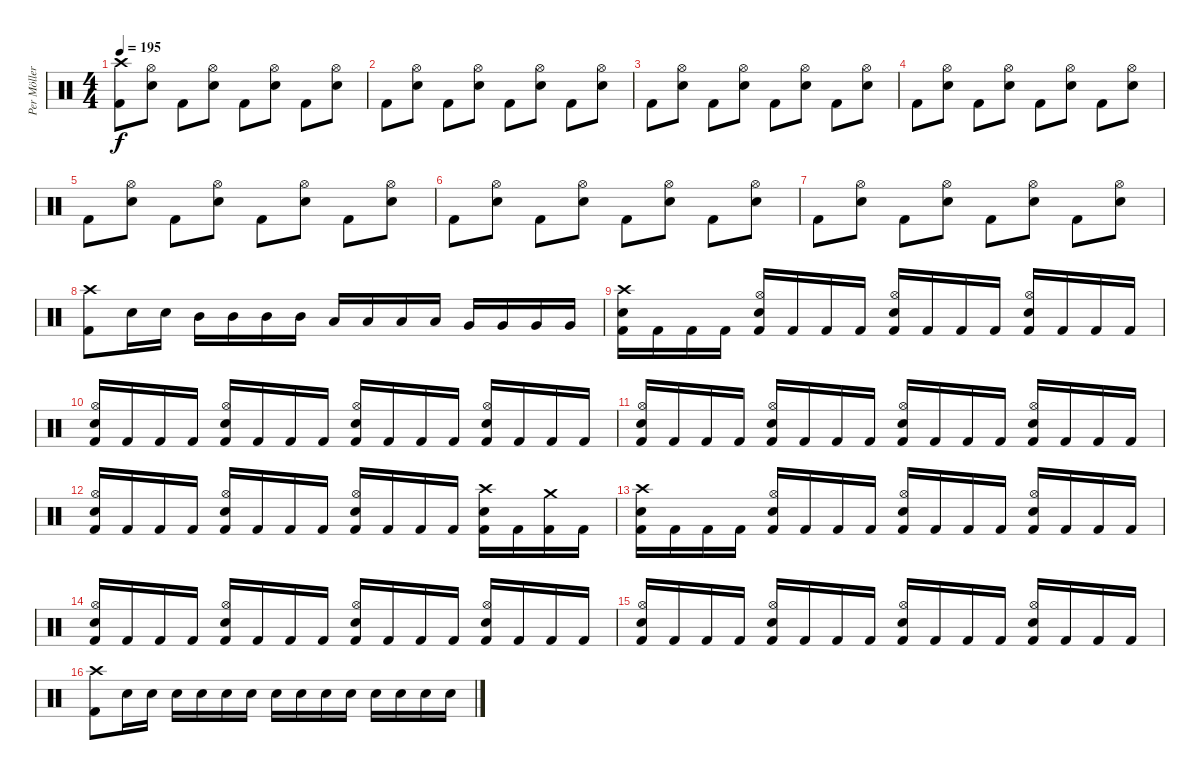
\track ("Per Möller Jensen" "Per Möller") {instrument percussion}
\staff {score}
\articulation defaults
\ts (4 4)
\tempo 195
\clef neutral
\ks c
("Crash high (hit)" "Kick (hit) 2").8{dy f} ("Hi-Hat (open)" "Snare (hit) 2").8 "Kick (hit) 2".8 ("Hi-Hat (open)" "Snare (hit) 2").8 "Kick (hit) 2".8 ("Hi-Hat (open)" "Snare (hit) 2").8 "Kick (hit) 2".8 ("Hi-Hat (open)" "Snare (hit) 2").8 |
"Kick (hit) 2".8 ("Hi-Hat (open)" "Snare (hit) 2").8 "Kick (hit) 2".8 ("Hi-Hat (open)" "Snare (hit) 2").8 "Kick (hit) 2".8 ("Hi-Hat (open)" "Snare (hit) 2").8 "Kick (hit) 2".8 ("Hi-Hat (open)" "Snare (hit) 2").8 |
"Kick (hit) 2".8 ("Hi-Hat (open)" "Snare (hit) 2").8 "Kick (hit) 2".8 ("Hi-Hat (open)" "Snare (hit) 2").8 "Kick (hit) 2".8 ("Hi-Hat (open)" "Snare (hit) 2").8 "Kick (hit) 2".8 ("Hi-Hat (open)" "Snare (hit) 2").8 |
"Kick (hit) 2".8 ("Hi-Hat (open)" "Snare (hit) 2").8 "Kick (hit) 2".8 ("Hi-Hat (open)" "Snare (hit) 2").8 "Kick (hit) 2".8 ("Hi-Hat (open)" "Snare (hit) 2").8 "Kick (hit) 2".8 ("Hi-Hat (open)" "Snare (hit) 2").8 |
"Kick (hit) 2".8 ("Hi-Hat (open)" "Snare (hit) 2").8 "Kick (hit) 2".8 ("Hi-Hat (open)" "Snare (hit) 2").8 "Kick (hit) 2".8 ("Hi-Hat (open)" "Snare (hit) 2").8 "Kick (hit) 2".8 ("Hi-Hat (open)" "Snare (hit) 2").8 |
"Kick (hit) 2".8 ("Hi-Hat (open)" "Snare (hit) 2").8 "Kick (hit) 2".8 ("Hi-Hat (open)" "Snare (hit) 2").8 "Kick (hit) 2".8 ("Hi-Hat (open)" "Snare (hit) 2").8 "Kick (hit) 2".8 ("Hi-Hat (open)" "Snare (hit) 2").8 |
"Kick (hit) 2".8 ("Hi-Hat (open)" "Snare (hit) 2").8 "Kick (hit) 2".8 ("Hi-Hat (open)" "Snare (hit) 2").8 "Kick (hit) 2".8 ("Hi-Hat (open)" "Snare (hit) 2").8 "Kick (hit) 2".8 ("Hi-Hat (open)" "Snare (hit) 2").8 |
("Crash high (hit)" "Kick (hit) 2").8 "Snare (hit) 2".16 "Snare (hit) 2".16 "Mid Tom (hit)".16 "Mid Tom (hit)".16 "Mid Tom (hit)".16 "Mid Tom (hit)".16 "Low Tom (hit)".16 "Low Tom (hit)".16 "Low Tom (hit)".16 "Low Tom (hit)".16 "Very Low Tom (hit)".16 "Very Low Tom (hit)".16 "Very Low Tom (hit)".16 "Very Low Tom (hit)".16 |
("Crash high (hit)" "Snare (hit) 2" "Kick (hit) 2").16 "Kick (hit) 2".16 "Kick (hit) 2".16 "Kick (hit) 2".16 ("Hi-Hat (open)" "Snare (hit) 2" "Kick (hit) 2").16 "Kick (hit) 2".16 "Kick (hit) 2".16 "Kick (hit) 2".16 ("Hi-Hat (open)" "Snare (hit) 2" "Kick (hit) 2").16 "Kick (hit) 2".16 "Kick (hit) 2".16 "Kick (hit) 2".16 ("Hi-Hat (open)" "Snare (hit) 2" "Kick (hit) 2").16 "Kick (hit) 2".16 "Kick (hit) 2".16 "Kick (hit) 2".16 |
("Hi-Hat (open)" "Snare (hit) 2" "Kick (hit) 2").16 "Kick (hit) 2".16 "Kick (hit) 2".16 "Kick (hit) 2".16 ("Hi-Hat (open)" "Snare (hit) 2" "Kick (hit) 2").16 "Kick (hit) 2".16 "Kick (hit) 2".16 "Kick (hit) 2".16 ("Hi-Hat (open)" "Snare (hit) 2" "Kick (hit) 2").16 "Kick (hit) 2".16 "Kick (hit) 2".16 "Kick (hit) 2".16 ("Hi-Hat (open)" "Snare (hit) 2" "Kick (hit) 2").16 "Kick (hit) 2".16 "Kick (hit) 2".16 "Kick (hit) 2".16 |
("Hi-Hat (open)" "Snare (hit) 2" "Kick (hit) 2").16 "Kick (hit) 2".16 "Kick (hit) 2".16 "Kick (hit) 2".16 ("Hi-Hat (open)" "Snare (hit) 2" "Kick (hit) 2").16 "Kick (hit) 2".16 "Kick (hit) 2".16 "Kick (hit) 2".16 ("Hi-Hat (open)" "Snare (hit) 2" "Kick (hit) 2").16 "Kick (hit) 2".16 "Kick (hit) 2".16 "Kick (hit) 2".16 ("Hi-Hat (open)" "Snare (hit) 2" "Kick (hit) 2").16 "Kick (hit) 2".16 "Kick (hit) 2".16 "Kick (hit) 2".16 |
("Hi-Hat (open)" "Snare (hit) 2" "Kick (hit) 2").16 "Kick (hit) 2".16 "Kick (hit) 2".16 "Kick (hit) 2".16 ("Hi-Hat (open)" "Snare (hit) 2" "Kick (hit) 2").16 "Kick (hit) 2".16 "Kick (hit) 2".16 "Kick (hit) 2".16 ("Hi-Hat (open)" "Snare (hit) 2" "Kick (hit) 2").16 "Kick (hit) 2".16 "Kick (hit) 2".16 "Kick (hit) 2".16 ("Crash high (hit)" "Snare (hit) 2" "Kick (hit) 2").16 "Kick (hit) 2".16 ("Crash medium (hit)" "Kick (hit) 2").16 "Kick (hit) 2".16 |
("Crash high (hit)" "Snare (hit) 2" "Kick (hit) 2").16 "Kick (hit) 2".16 "Kick (hit) 2".16 "Kick (hit) 2".16 ("Hi-Hat (open)" "Snare (hit) 2" "Kick (hit) 2").16 "Kick (hit) 2".16 "Kick (hit) 2".16 "Kick (hit) 2".16 ("Hi-Hat (open)" "Snare (hit) 2" "Kick (hit) 2").16 "Kick (hit) 2".16 "Kick (hit) 2".16 "Kick (hit) 2".16 ("Hi-Hat (open)" "Snare (hit) 2" "Kick (hit) 2").16 "Kick (hit) 2".16 "Kick (hit) 2".16 "Kick (hit) 2".16 |
("Hi-Hat (open)" "Snare (hit) 2" "Kick (hit) 2").16 "Kick (hit) 2".16 "Kick (hit) 2".16 "Kick (hit) 2".16 ("Hi-Hat (open)" "Snare (hit) 2" "Kick (hit) 2").16 "Kick (hit) 2".16 "Kick (hit) 2".16 "Kick (hit) 2".16 ("Hi-Hat (open)" "Snare (hit) 2" "Kick (hit) 2").16 "Kick (hit) 2".16 "Kick (hit) 2".16 "Kick (hit) 2".16 ("Hi-Hat (open)" "Snare (hit) 2" "Kick (hit) 2").16 "Kick (hit) 2".16 "Kick (hit) 2".16 "Kick (hit) 2".16 |
("Hi-Hat (open)" "Snare (hit) 2" "Kick (hit) 2").16 "Kick (hit) 2".16 "Kick (hit) 2".16 "Kick (hit) 2".16 ("Hi-Hat (open)" "Snare (hit) 2" "Kick (hit) 2").16 "Kick (hit) 2".16 "Kick (hit) 2".16 "Kick (hit) 2".16 ("Hi-Hat (open)" "Snare (hit) 2" "Kick (hit) 2").16 "Kick (hit) 2".16 "Kick (hit) 2".16 "Kick (hit) 2".16 ("Hi-Hat (open)" "Snare (hit) 2" "Kick (hit) 2").16 "Kick (hit) 2".16 "Kick (hit) 2".16 "Kick (hit) 2".16 |
("Crash high (hit)" "Kick (hit) 2").8 "Snare (hit) 2".16 "Snare (hit) 2".16 "Snare (hit) 2".16 "Snare (hit) 2".16 "Snare (hit) 2".16 "Snare (hit) 2".16 "Snare (hit) 2".16 "Snare (hit) 2".16 "Snare (hit) 2".16 "Snare (hit) 2".16 "Snare (hit) 2".16 "Snare (hit) 2".16 "Snare (hit) 2".16 "Snare (hit) 2".16
